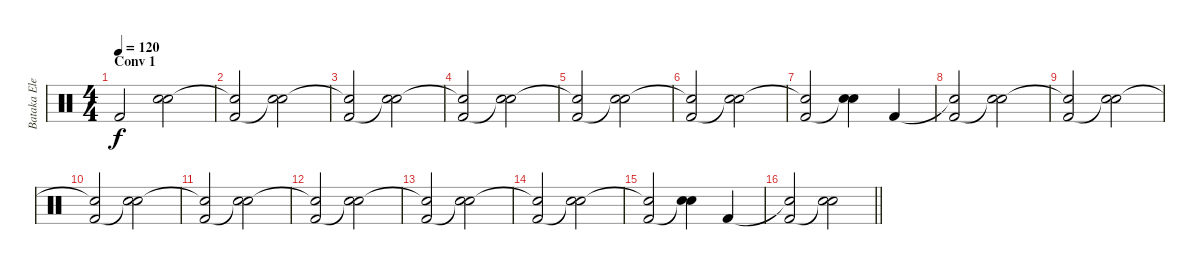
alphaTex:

\track ("Bataka Electrica" "Bataka Ele") {instrument percussion}
\staff {score}
\articulation defaults
\ts (4 4)
\section ("" "Conv 1")
\tempo 120
\clef neutral
\ks c "Kick (hit) 2".2{dy f}
("Snare (hit) 2" "Snare (hit)").2 |
("Snare (hit)"{t} "Kick (hit) 2").2 ("Snare (hit) 2" "Snare (hit)"{t}).2 |
("Snare (hit)"{t} "Kick (hit) 2").2 ("Snare (hit) 2" "Snare (hit)"{t}).2 |
("Snare (hit)"{t} "Kick (hit) 2").2 ("Snare (hit) 2" "Snare (hit)"{t}).2 |
("Snare (hit)"{t} "Kick (hit) 2").2 ("Snare (hit) 2" "Snare (hit)"{t}).2 |
("Snare (hit)"{t} "Kick (hit) 2").2 ("Snare (hit) 2" "Snare (hit)"{t}).2 |
("Snare (hit)"{t} "Kick (hit) 2").2 ("Snare (hit) 2" "Snare (hit)"{t}).4 "Kick (hit) 2".4 |
("Snare (hit)"{t} "Kick (hit) 2").2 ("Snare (hit) 2" "Snare (hit)"{t}).2 |
("Snare (hit)"{t} "Kick (hit) 2").2 ("Snare (hit) 2" "Snare (hit)"{t}).2 |
("Snare (hit)"{t} "Kick (hit) 2").2 ("Snare (hit) 2" "Snare (hit)"{t}).2 |
("Snare (hit)"{t} "Kick (hit) 2").2 ("Snare (hit) 2" "Snare (hit)"{t}).2 |
("Snare (hit)"{t} "Kick (hit) 2").2 ("Snare (hit) 2" "Snare (hit)"{t}).2 |
("Snare (hit)"{t} "Kick (hit) 2").2 ("Snare (hit) 2" "Snare (hit)"{t}).2 |
("Snare (hit)"{t} "Kick (hit) 2").2 ("Snare (hit) 2" "Snare (hit)"{t}).2 |
("Snare (hit)"{t} "Kick (hit) 2").2 ("Snare (hit) 2" "Snare (hit)"{t}).4 "Kick (hit) 2".4 |
\barLineRight lightlight
("Snare (hit)"{t} "Kick (hit) 2").2 ("Snare (hit) 2" "Snare (hit)"{t}).2
